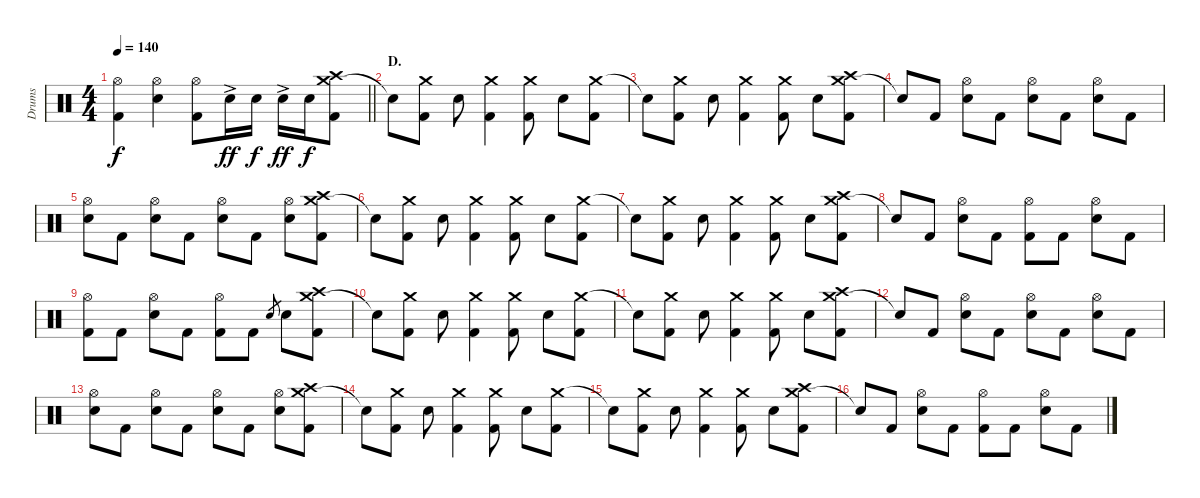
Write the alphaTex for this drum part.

\track ("Drums" "Drums") {instrument percussion}
\staff {score}
\articulation defaults
\ts (4 4)
\tempo 140
\clef neutral
\barLineRight lightlight
\ks c
("Hi-Hat (open)" "Kick (hit) 2").4{dy f} ("Hi-Hat (open)" "Electric Snare (hit)").4 ("Hi-Hat (open)" "Kick (hit) 2").8 "Electric Snare (hit)"{ac}.16{dy ff} "Electric Snare (hit)".16{dy f} "Electric Snare (hit)"{ac}.16{dy ff} "Electric Snare (hit)".16{dy f} ("Crash medium (hit)" "Crash high (hit)" "Kick (hit) 2").8 |
\section ("" "D.")
"Snare (hit)"{t}.8 ("Crash medium (hit)" "Kick (hit) 2").8 "Electric Snare (hit)".8 ("Crash medium (hit)" "Kick (hit) 2").4 ("Crash medium (hit)" "Kick (hit) 2").8 "Electric Snare (hit)".8 ("Crash medium (hit)" "Kick (hit) 2").8 |
"Snare (hit)"{t}.8 ("Crash medium (hit)" "Kick (hit) 2").8 "Electric Snare (hit)".8 ("Crash medium (hit)" "Kick (hit) 2").4 ("Crash medium (hit)" "Kick (hit) 2").8 "Electric Snare (hit)".8 ("Crash medium (hit)" "Crash high (hit)" "Kick (hit) 2").8 |
"Snare (hit)"{t}.8 "Kick (hit) 2".8 ("Hi-Hat (open)" "Electric Snare (hit)").8 "Kick (hit) 2".8 ("Hi-Hat (open)" "Electric Snare (hit)").8 "Kick (hit) 2".8 ("Hi-Hat (open)" "Electric Snare (hit)").8 "Kick (hit) 2".8 |
("Hi-Hat (open)" "Electric Snare (hit)").8 "Kick (hit) 2".8 ("Hi-Hat (open)" "Electric Snare (hit)").8 "Kick (hit) 2".8 ("Hi-Hat (open)" "Electric Snare (hit)").8 "Kick (hit) 2".8 ("Hi-Hat (open)" "Electric Snare (hit)").8 ("Crash medium (hit)" "Crash high (hit)" "Kick (hit) 2").8 |
"Snare (hit)"{t}.8 ("Crash medium (hit)" "Kick (hit) 2").8 "Electric Snare (hit)".8 ("Crash medium (hit)" "Kick (hit) 2").4 ("Crash medium (hit)" "Kick (hit) 2").8 "Electric Snare (hit)".8 ("Crash medium (hit)" "Kick (hit) 2").8 |
"Snare (hit)"{t}.8 ("Crash medium (hit)" "Kick (hit) 2").8 "Electric Snare (hit)".8 ("Crash medium (hit)" "Kick (hit) 2").4 ("Crash medium (hit)" "Kick (hit) 2").8 "Electric Snare (hit)".8 ("Crash medium (hit)" "Crash high (hit)" "Kick (hit) 2").8 |
"Snare (hit)"{t}.8 "Kick (hit) 2".8 ("Hi-Hat (open)" "Electric Snare (hit)").8 "Kick (hit) 2".8 ("Hi-Hat (open)" "Kick (hit) 2").8 "Kick (hit) 2".8 ("Hi-Hat (open)" "Electric Snare (hit)").8 "Kick (hit) 2".8 |
("Hi-Hat (open)" "Kick (hit) 2").8 "Kick (hit) 2".8 ("Hi-Hat (open)" "Electric Snare (hit)").8 "Kick (hit) 2".8 ("Hi-Hat (open)" "Kick (hit) 2").8 "Kick (hit) 2".8 "Electric Snare (hit)".8{gr} "Electric Snare (hit)".8 ("Crash medium (hit)" "Crash high (hit)" "Kick (hit) 2").8 |
"Snare (hit)"{t}.8 ("Crash medium (hit)" "Kick (hit) 2").8 "Electric Snare (hit)".8 ("Crash medium (hit)" "Kick (hit) 2").4 ("Crash medium (hit)" "Kick (hit) 2").8 "Electric Snare (hit)".8 ("Crash medium (hit)" "Kick (hit) 2").8 |
"Snare (hit)"{t}.8 ("Crash medium (hit)" "Kick (hit) 2").8 "Electric Snare (hit)".8 ("Crash medium (hit)" "Kick (hit) 2").4 ("Crash medium (hit)" "Kick (hit) 2").8 "Electric Snare (hit)".8 ("Crash medium (hit)" "Crash high (hit)" "Kick (hit) 2").8 |
"Snare (hit)"{t}.8 "Kick (hit) 2".8 ("Hi-Hat (open)" "Electric Snare (hit)").8 "Kick (hit) 2".8 ("Hi-Hat (open)" "Electric Snare (hit)").8 "Kick (hit) 2".8 ("Hi-Hat (open)" "Electric Snare (hit)").8 "Kick (hit) 2".8 |
("Hi-Hat (open)" "Electric Snare (hit)").8 "Kick (hit) 2".8 ("Hi-Hat (open)" "Electric Snare (hit)").8 "Kick (hit) 2".8 ("Hi-Hat (open)" "Electric Snare (hit)").8 "Kick (hit) 2".8 ("Hi-Hat (open)" "Electric Snare (hit)").8 ("Crash medium (hit)" "Crash high (hit)" "Kick (hit) 2").8 |
"Snare (hit)"{t}.8 ("Crash medium (hit)" "Kick (hit) 2").8 "Electric Snare (hit)".8 ("Crash medium (hit)" "Kick (hit) 2").4 ("Crash medium (hit)" "Kick (hit) 2").8 "Electric Snare (hit)".8 ("Crash medium (hit)" "Kick (hit) 2").8 |
"Snare (hit)"{t}.8 ("Crash medium (hit)" "Kick (hit) 2").8 "Electric Snare (hit)".8 ("Crash medium (hit)" "Kick (hit) 2").4 ("Crash medium (hit)" "Kick (hit) 2").8 "Electric Snare (hit)".8 ("Crash medium (hit)" "Crash high (hit)" "Kick (hit) 2").8 |
"Snare (hit)"{t}.8 "Kick (hit) 2".8 ("Hi-Hat (open)" "Electric Snare (hit)").8 "Kick (hit) 2".8 ("Hi-Hat (open)" "Kick (hit) 2").8 "Kick (hit) 2".8 ("Hi-Hat (open)" "Electric Snare (hit)").8 "Kick (hit) 2".8
